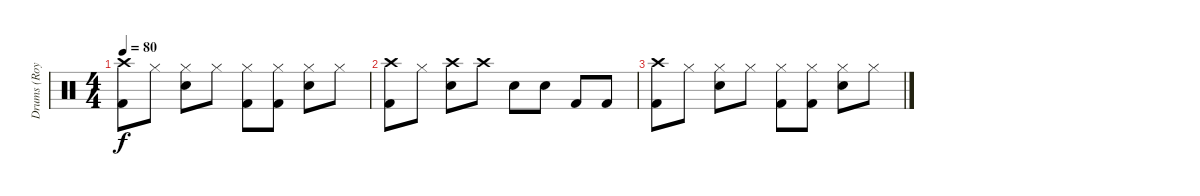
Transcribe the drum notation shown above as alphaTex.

\track ("Drums (Roy Mayorga)" "Drums (Roy") {instrument percussion}
\staff {score}
\articulation defaults
\ts (4 4)
\tempo 80
\clef neutral
\ks c
("Crash high (hit)" "Kick (hit) 2").8{dy f} "Hi-Hat (closed)".8 ("Hi-Hat (closed)" "Snare (hit) 2").8 "Hi-Hat (closed)".8 ("Hi-Hat (closed)" "Kick (hit) 2").8 ("Hi-Hat (closed)" "Kick (hit) 2").8 ("Hi-Hat (closed)" "Snare (hit) 2").8 "Hi-Hat (closed)".8 |
("Crash high (hit)" "Kick (hit) 2").8 "Hi-Hat (closed)".8 ("Crash high (hit)" "Snare (hit) 2").8 "Crash high (hit)".8 "Snare (hit) 2".8 "Snare (hit) 2".8 "Kick (hit) 2".8 "Kick (hit) 2".8 |
("Crash high (hit)" "Kick (hit) 2").8 "Hi-Hat (closed)".8 ("Hi-Hat (closed)" "Snare (hit) 2").8 "Hi-Hat (closed)".8 ("Hi-Hat (closed)" "Kick (hit) 2").8 ("Hi-Hat (closed)" "Kick (hit) 2").8 ("Hi-Hat (closed)" "Snare (hit) 2").8 "Hi-Hat (closed)".8
